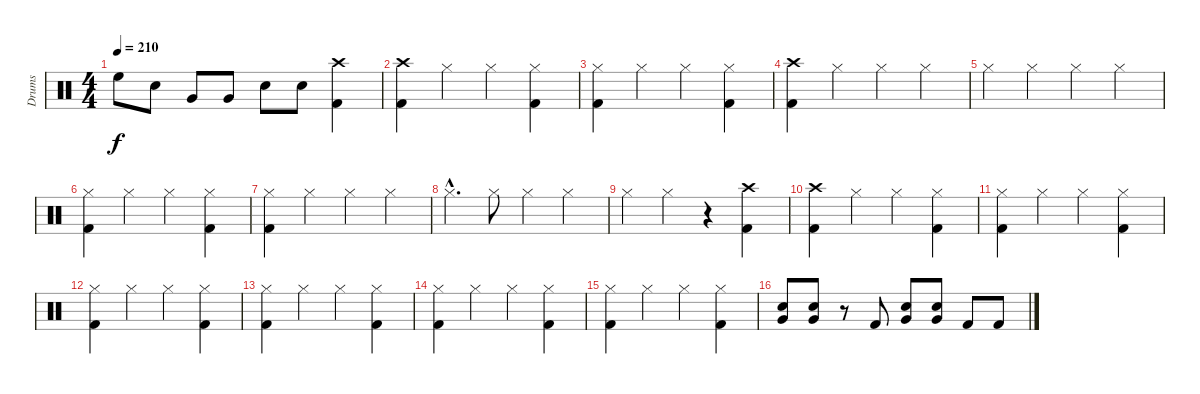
\track ("Drums" "Drums") {instrument percussion}
\staff {score}
\articulation defaults
\ts (4 4)
\tempo 210
\clef neutral
\ks c "High Floor Tom (hit)".8{dy f} "Snare (hit) 2".8 "Very Low Tom (hit)".8 "Very Low Tom (hit)".8 "Snare (hit) 2".8 "Snare (hit) 2".8
("Crash high (hit)" "Kick (hit) 2").4 |
("Crash high (hit)" "Kick (hit) 2").4 "Hi-Hat (closed)".4 "Hi-Hat (closed)".4 ("Hi-Hat (closed)" "Kick (hit) 2").4 |
("Hi-Hat (closed)" "Kick (hit) 2").4 "Hi-Hat (closed)".4 "Hi-Hat (closed)".4 ("Hi-Hat (closed)" "Kick (hit) 2").4 |
("Crash high (hit)" "Kick (hit) 2").4 "Hi-Hat (closed)".4 "Hi-Hat (closed)".4 "Hi-Hat (closed)".4 |
"Hi-Hat (closed)".4 "Hi-Hat (closed)".4 "Hi-Hat (closed)".4 "Hi-Hat (closed)".4 |
("Hi-Hat (closed)" "Kick (hit) 2").4 "Hi-Hat (closed)".4 "Hi-Hat (closed)".4 ("Hi-Hat (closed)" "Kick (hit) 2").4 |
("Hi-Hat (closed)" "Kick (hit) 2").4 "Hi-Hat (closed)".4 "Hi-Hat (closed)".4 "Hi-Hat (closed)".4 |
"Hi-Hat (closed)"{hac}.4{d} "Hi-Hat (closed)".8 "Hi-Hat (closed)".4 "Hi-Hat (closed)".4 |
"Hi-Hat (closed)".4 "Hi-Hat (closed)".4 r.4 ("Crash high (hit)" "Kick (hit) 2").4 |
("Crash high (hit)" "Kick (hit) 2").4 "Hi-Hat (closed)".4 "Hi-Hat (closed)".4 ("Hi-Hat (closed)" "Kick (hit) 2").4 |
("Hi-Hat (closed)" "Kick (hit) 2").4 "Hi-Hat (closed)".4 "Hi-Hat (closed)".4 ("Hi-Hat (closed)" "Kick (hit) 2").4 |
("Hi-Hat (closed)" "Kick (hit) 2").4 "Hi-Hat (closed)".4 "Hi-Hat (closed)".4 ("Hi-Hat (closed)" "Kick (hit) 2").4 |
("Hi-Hat (closed)" "Kick (hit) 2").4 "Hi-Hat (closed)".4 "Hi-Hat (closed)".4 ("Hi-Hat (closed)" "Kick (hit) 2").4 |
("Hi-Hat (closed)" "Kick (hit) 2").4 "Hi-Hat (closed)".4 "Hi-Hat (closed)".4 ("Hi-Hat (closed)" "Kick (hit) 2").4 |
("Hi-Hat (closed)" "Kick (hit) 2").4 "Hi-Hat (closed)".4 "Hi-Hat (closed)".4 ("Hi-Hat (closed)" "Kick (hit) 2").4 |
("Snare (hit) 2" "Very Low Tom (hit)").8 ("Snare (hit) 2" "Very Low Tom (hit)").8 r.8 "Kick (hit) 2".8 ("Snare (hit) 2" "Very Low Tom (hit)").8 ("Snare (hit) 2" "Very Low Tom (hit)").8 "Kick (hit) 2".8 "Kick (hit) 2".8
